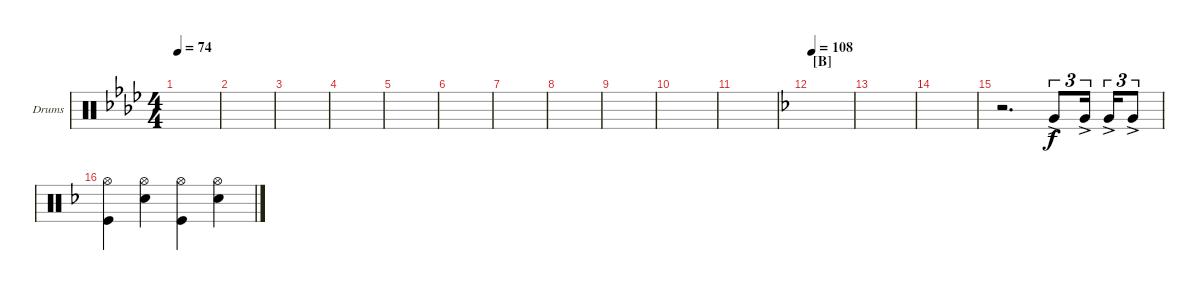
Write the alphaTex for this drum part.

\defaultSystemsLayout 4
\bracketExtendMode groupsimilarinstruments
\firstSystemTrackNameOrientation horizontal
\otherSystemsTrackNameOrientation horizontal
\track ("Drumkit" "Drums") {instrument percussion}
\staff {score}
\articulation defaults
\ts (4 4)
\tempo 74
\clef neutral
\ks ab
|
|
|
|
|
|
|
|
|
|
|
\section ("B" "")
\tempo 108
\ks dminor
|
|
|
r.2{d} "Very Low Tom (hit)"{ac}.8{tu (3 2)} "Very Low Tom (hit)"{ac}.16{tu (3 2)} "Very Low Tom (hit)"{ac}.16{tu (3 2)} "Very Low Tom (hit)"{ac}.8{tu (3 2)} |
("Hi-Hat (open)" "Kick (hit)").4{dy f} ("Snare (hit) 2" "Hi-Hat (open)").4 ("Hi-Hat (open)" "Kick (hit)").4 ("Snare (hit) 2" "Hi-Hat (open)").4
